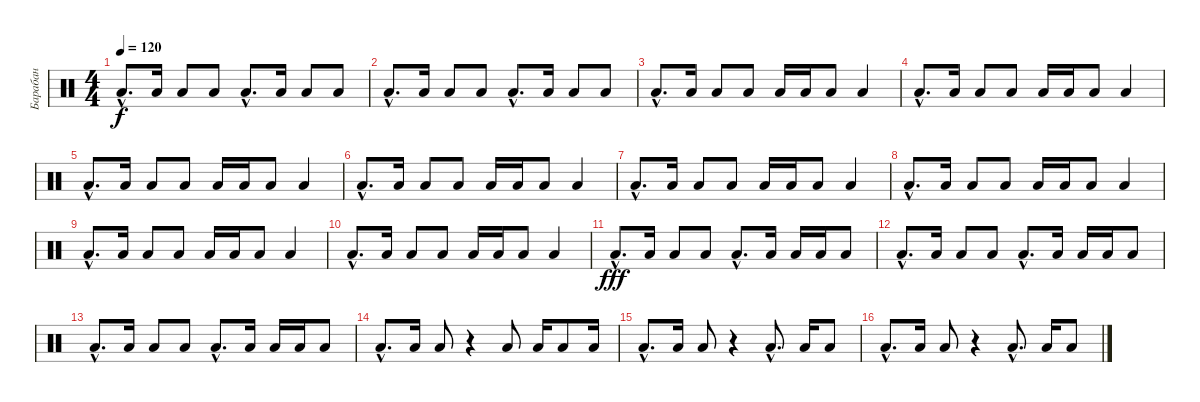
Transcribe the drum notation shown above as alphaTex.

\track ("Барабан" "Барабан") {instrument percussion}
\staff {score}
\articulation defaults
\ts (4 4)
\tempo 120
\clef neutral
\ks c "Low Floor Tom (hit)"{hac}.8{d dy f} "Low Floor Tom (hit)".16 "Low Floor Tom (hit)".8 "Low Floor Tom (hit)".8 "Low Floor Tom (hit)"{hac}.8{d} "Low Floor Tom (hit)".16 "Low Floor Tom (hit)".8 "Low Floor Tom (hit)".8
|
"Low Floor Tom (hit)"{hac}.8{d} "Low Floor Tom (hit)".16 "Low Floor Tom (hit)".8 "Low Floor Tom (hit)".8 "Low Floor Tom (hit)"{hac}.8{d} "Low Floor Tom (hit)".16 "Low Floor Tom (hit)".8 "Low Floor Tom (hit)".8 |
"Low Floor Tom (hit)"{hac}.8{d} "Low Floor Tom (hit)".16 "Low Floor Tom (hit)".8 "Low Floor Tom (hit)".8 "Low Floor Tom (hit)".16 "Low Floor Tom (hit)".16 "Low Floor Tom (hit)".8 "Low Floor Tom (hit)".4 |
"Low Floor Tom (hit)"{hac}.8{d} "Low Floor Tom (hit)".16 "Low Floor Tom (hit)".8 "Low Floor Tom (hit)".8 "Low Floor Tom (hit)".16 "Low Floor Tom (hit)".16 "Low Floor Tom (hit)".8 "Low Floor Tom (hit)".4 |
"Low Floor Tom (hit)"{hac}.8{d} "Low Floor Tom (hit)".16 "Low Floor Tom (hit)".8 "Low Floor Tom (hit)".8 "Low Floor Tom (hit)".16 "Low Floor Tom (hit)".16 "Low Floor Tom (hit)".8 "Low Floor Tom (hit)".4 |
"Low Floor Tom (hit)"{hac}.8{d} "Low Floor Tom (hit)".16 "Low Floor Tom (hit)".8 "Low Floor Tom (hit)".8 "Low Floor Tom (hit)".16 "Low Floor Tom (hit)".16 "Low Floor Tom (hit)".8 "Low Floor Tom (hit)".4 |
"Low Floor Tom (hit)"{hac}.8{d} "Low Floor Tom (hit)".16 "Low Floor Tom (hit)".8 "Low Floor Tom (hit)".8 "Low Floor Tom (hit)".16 "Low Floor Tom (hit)".16 "Low Floor Tom (hit)".8 "Low Floor Tom (hit)".4 |
"Low Floor Tom (hit)"{hac}.8{d} "Low Floor Tom (hit)".16 "Low Floor Tom (hit)".8 "Low Floor Tom (hit)".8 "Low Floor Tom (hit)".16 "Low Floor Tom (hit)".16 "Low Floor Tom (hit)".8 "Low Floor Tom (hit)".4 |
"Low Floor Tom (hit)"{hac}.8{d} "Low Floor Tom (hit)".16 "Low Floor Tom (hit)".8 "Low Floor Tom (hit)".8 "Low Floor Tom (hit)".16 "Low Floor Tom (hit)".16 "Low Floor Tom (hit)".8 "Low Floor Tom (hit)".4 |
"Low Floor Tom (hit)"{hac}.8{d} "Low Floor Tom (hit)".16 "Low Floor Tom (hit)".8 "Low Floor Tom (hit)".8 "Low Floor Tom (hit)".16 "Low Floor Tom (hit)".16 "Low Floor Tom (hit)".8 "Low Floor Tom (hit)".4 |
"Low Floor Tom (hit)"{hac}.8{d dy fff} "Low Floor Tom (hit)".16 "Low Floor Tom (hit)".8 "Low Floor Tom (hit)".8 "Low Floor Tom (hit)"{hac}.8{d} "Low Floor Tom (hit)".16 "Low Floor Tom (hit)".16 "Low Floor Tom (hit)".16 "Low Floor Tom (hit)".8 |
"Low Floor Tom (hit)"{hac}.8{d} "Low Floor Tom (hit)".16 "Low Floor Tom (hit)".8 "Low Floor Tom (hit)".8 "Low Floor Tom (hit)"{hac}.8{d} "Low Floor Tom (hit)".16 "Low Floor Tom (hit)".16 "Low Floor Tom (hit)".16 "Low Floor Tom (hit)".8 |
"Low Floor Tom (hit)"{hac}.8{d} "Low Floor Tom (hit)".16 "Low Floor Tom (hit)".8 "Low Floor Tom (hit)".8 "Low Floor Tom (hit)"{hac}.8{d} "Low Floor Tom (hit)".16 "Low Floor Tom (hit)".16 "Low Floor Tom (hit)".16 "Low Floor Tom (hit)".8 |
"Low Floor Tom (hit)"{hac}.8{d} "Low Floor Tom (hit)".16 "Low Floor Tom (hit)".8 r.4 "Low Floor Tom (hit)".8 "Low Floor Tom (hit)".16 "Low Floor Tom (hit)".8 "Low Floor Tom (hit)".16 |
"Low Floor Tom (hit)"{hac}.8{d} "Low Floor Tom (hit)".16 "Low Floor Tom (hit)".8 r.4 "Low Floor Tom (hit)"{hac}.8{d} "Low Floor Tom (hit)".16 "Low Floor Tom (hit)".8 |
"Low Floor Tom (hit)"{hac}.8{d} "Low Floor Tom (hit)".16 "Low Floor Tom (hit)".8 r.4 "Low Floor Tom (hit)"{hac}.8{d} "Low Floor Tom (hit)".16 "Low Floor Tom (hit)".8
